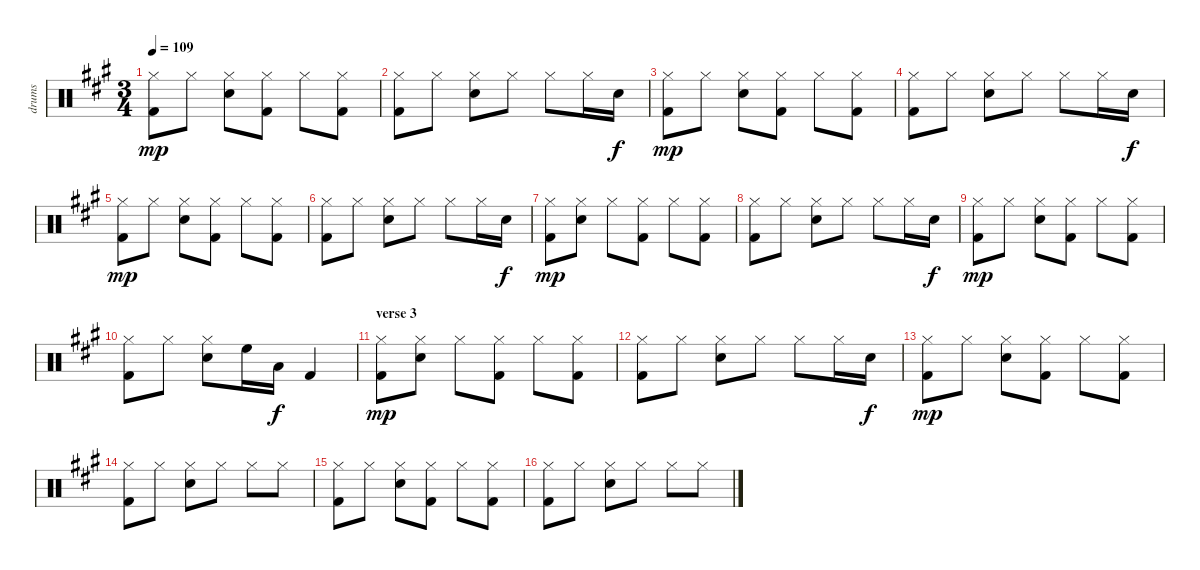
\track ("drums" "drums") {instrument percussion}
\staff {score}
\articulation defaults
\ts (3 4)
\tempo 109
\clef neutral
\ks a
("Hi-Hat (closed)" "Kick (hit) 2").8{dy mp} "Hi-Hat (closed)".8 ("Hi-Hat (closed)" "Snare (hit) 2").8 ("Hi-Hat (closed)" "Kick (hit) 2").8 "Hi-Hat (closed)".8 ("Hi-Hat (closed)" "Kick (hit) 2").8 |
("Hi-Hat (closed)" "Kick (hit) 2").8 "Hi-Hat (closed)".8 ("Hi-Hat (closed)" "Snare (hit) 2").8 "Hi-Hat (closed)".8 "Hi-Hat (closed)".8 "Hi-Hat (closed)".16 "Snare (hit) 2".16{dy f} |
("Hi-Hat (closed)" "Kick (hit) 2").8{dy mp} "Hi-Hat (closed)".8 ("Hi-Hat (closed)" "Snare (hit) 2").8 ("Hi-Hat (closed)" "Kick (hit) 2").8 "Hi-Hat (closed)".8 ("Hi-Hat (closed)" "Kick (hit) 2").8 |
("Hi-Hat (closed)" "Kick (hit) 2").8 "Hi-Hat (closed)".8 ("Hi-Hat (closed)" "Snare (hit) 2").8 "Hi-Hat (closed)".8 "Hi-Hat (closed)".8 "Hi-Hat (closed)".16 "Snare (hit) 2".16{dy f} |
("Hi-Hat (closed)" "Kick (hit) 2").8{dy mp} "Hi-Hat (closed)".8 ("Hi-Hat (closed)" "Snare (hit) 2").8 ("Hi-Hat (closed)" "Kick (hit) 2").8 "Hi-Hat (closed)".8 ("Hi-Hat (closed)" "Kick (hit) 2").8 |
("Hi-Hat (closed)" "Kick (hit) 2").8 "Hi-Hat (closed)".8 ("Hi-Hat (closed)" "Snare (hit) 2").8 "Hi-Hat (closed)".8 "Hi-Hat (closed)".8 "Hi-Hat (closed)".16 "Snare (hit) 2".16{dy f} |
("Hi-Hat (closed)" "Kick (hit) 2").8{dy mp} ("Hi-Hat (closed)" "Snare (hit) 2").8 "Hi-Hat (closed)".8 ("Hi-Hat (closed)" "Kick (hit) 2").8 "Hi-Hat (closed)".8 ("Hi-Hat (closed)" "Kick (hit) 2").8 |
("Hi-Hat (closed)" "Kick (hit) 2").8 "Hi-Hat (closed)".8 ("Hi-Hat (closed)" "Snare (hit) 2").8 "Hi-Hat (closed)".8 "Hi-Hat (closed)".8 "Hi-Hat (closed)".16 "Snare (hit) 2".16{dy f} |
("Hi-Hat (closed)" "Kick (hit) 2").8{dy mp} "Hi-Hat (closed)".8 ("Hi-Hat (closed)" "Snare (hit) 2").8 ("Hi-Hat (closed)" "Kick (hit) 2").8 "Hi-Hat (closed)".8 ("Hi-Hat (closed)" "Kick (hit) 2").8 |
("Hi-Hat (closed)" "Kick (hit) 2").8 "Hi-Hat (closed)".8 ("Hi-Hat (closed)" "Snare (hit) 2").8 "High Floor Tom (hit)".16 "Low Tom (hit)".16{dy f} "Kick (hit) 2".4 |
\section ("" "verse 3")
("Hi-Hat (closed)" "Kick (hit) 2").8{dy mp} ("Hi-Hat (closed)" "Snare (hit) 2").8 "Hi-Hat (closed)".8 ("Hi-Hat (closed)" "Kick (hit) 2").8 "Hi-Hat (closed)".8 ("Hi-Hat (closed)" "Kick (hit) 2").8 |
("Hi-Hat (closed)" "Kick (hit) 2").8 "Hi-Hat (closed)".8 ("Hi-Hat (closed)" "Snare (hit) 2").8 "Hi-Hat (closed)".8 "Hi-Hat (closed)".8 "Hi-Hat (closed)".16 "Snare (hit) 2".16{dy f} |
("Hi-Hat (closed)" "Kick (hit) 2").8{dy mp} "Hi-Hat (closed)".8 ("Hi-Hat (closed)" "Snare (hit) 2").8 ("Hi-Hat (closed)" "Kick (hit) 2").8 "Hi-Hat (closed)".8 ("Hi-Hat (closed)" "Kick (hit) 2").8 |
("Hi-Hat (closed)" "Kick (hit) 2").8 "Hi-Hat (closed)".8 ("Hi-Hat (closed)" "Snare (hit) 2").8 "Hi-Hat (closed)".8 "Hi-Hat (closed)".8 "Hi-Hat (closed)".8 |
("Hi-Hat (closed)" "Kick (hit) 2").8 "Hi-Hat (closed)".8 ("Hi-Hat (closed)" "Snare (hit) 2").8 ("Hi-Hat (closed)" "Kick (hit) 2").8 "Hi-Hat (closed)".8 ("Hi-Hat (closed)" "Kick (hit) 2").8 |
("Hi-Hat (closed)" "Kick (hit) 2").8 "Hi-Hat (closed)".8 ("Hi-Hat (closed)" "Snare (hit) 2").8 "Hi-Hat (closed)".8 "Hi-Hat (closed)".8 "Hi-Hat (closed)".8
